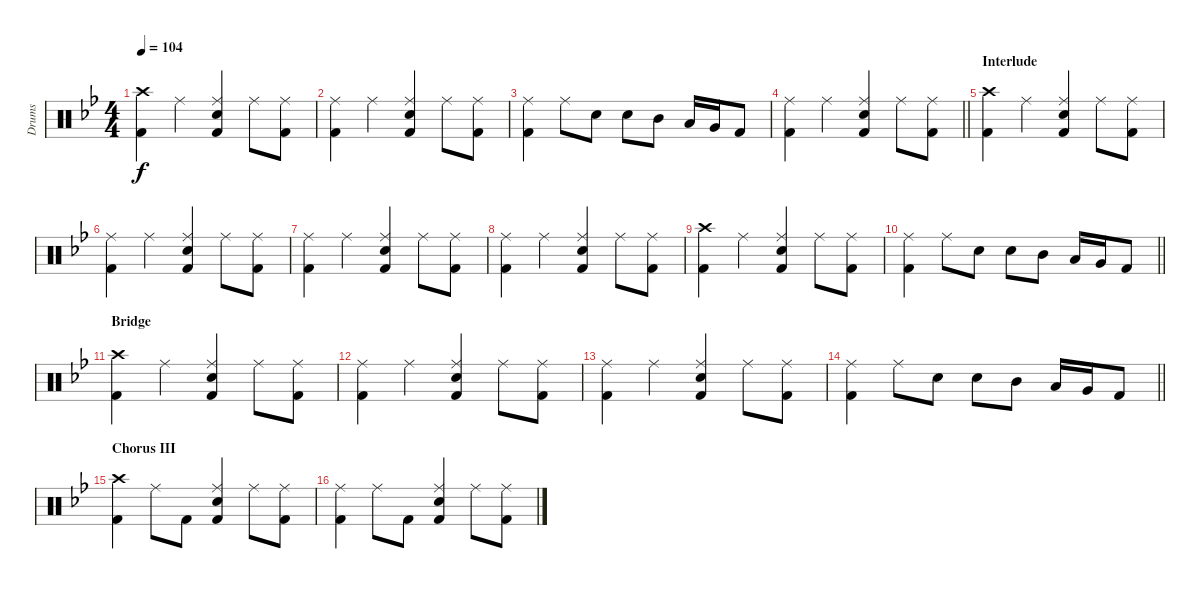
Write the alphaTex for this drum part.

\track ("Drums" "Drums") {instrument percussion}
\staff {score}
\articulation defaults
\ts (4 4)
\tempo 104
\clef neutral
\ks bb
("Crash high (hit)" "Kick (hit) 2").4{dy f} "Ride (middle)".4 ("Ride (middle)" "Snare (hit) 2" "Kick (hit) 2").4 "Ride (middle)".8 ("Ride (middle)" "Kick (hit) 2").8 |
("Ride (middle)" "Kick (hit) 2").4 "Ride (middle)".4 ("Ride (middle)" "Snare (hit) 2" "Kick (hit) 2").4 "Ride (middle)".8 ("Ride (middle)" "Kick (hit) 2").8 |
("Ride (middle)" "Kick (hit) 2").4 "Ride (middle)".8 "Snare (hit) 2".8 "Snare (hit) 2".8 "Mid Tom (hit)".8 "Low Tom (hit)".16 "Very Low Tom (hit)".16 "Kick (hit) 2".8 |
\barLineRight lightlight
("Ride (middle)" "Kick (hit) 2").4 "Ride (middle)".4 ("Ride (middle)" "Snare (hit) 2" "Kick (hit) 2").4 "Ride (middle)".8 ("Ride (middle)" "Kick (hit) 2").8 |
\section ("" "Interlude")
("Crash high (hit)" "Kick (hit) 2").4 "Ride (middle)".4 ("Ride (middle)" "Snare (hit) 2" "Kick (hit) 2").4 "Ride (middle)".8 ("Ride (middle)" "Kick (hit) 2").8 |
("Ride (middle)" "Kick (hit) 2").4 "Ride (middle)".4 ("Ride (middle)" "Snare (hit) 2" "Kick (hit) 2").4 "Ride (middle)".8 ("Ride (middle)" "Kick (hit) 2").8 |
("Ride (middle)" "Kick (hit) 2").4 "Ride (middle)".4 ("Ride (middle)" "Snare (hit) 2" "Kick (hit) 2").4 "Ride (middle)".8 ("Ride (middle)" "Kick (hit) 2").8 |
("Ride (middle)" "Kick (hit) 2").4 "Ride (middle)".4 ("Ride (middle)" "Snare (hit) 2" "Kick (hit) 2").4 "Ride (middle)".8 ("Ride (middle)" "Kick (hit) 2").8 |
("Crash high (hit)" "Kick (hit) 2").4 "Ride (middle)".4 ("Ride (middle)" "Snare (hit) 2" "Kick (hit) 2").4 "Ride (middle)".8 ("Ride (middle)" "Kick (hit) 2").8 |
\barLineRight lightlight
("Ride (middle)" "Kick (hit) 2").4 "Ride (middle)".8 "Snare (hit) 2".8 "Snare (hit) 2".8 "Mid Tom (hit)".8 "Low Tom (hit)".16 "Very Low Tom (hit)".16 "Kick (hit) 2".8 |
\section ("" "Bridge")
("Crash high (hit)" "Kick (hit) 2").4 "Ride (middle)".4 ("Ride (middle)" "Snare (hit) 2" "Kick (hit) 2").4 "Ride (middle)".8 ("Ride (middle)" "Kick (hit) 2").8 |
("Ride (middle)" "Kick (hit) 2").4 "Ride (middle)".4 ("Ride (middle)" "Snare (hit) 2" "Kick (hit) 2").4 "Ride (middle)".8 ("Ride (middle)" "Kick (hit) 2").8 |
("Ride (middle)" "Kick (hit) 2").4 "Ride (middle)".4 ("Ride (middle)" "Snare (hit) 2" "Kick (hit) 2").4 "Ride (middle)".8 ("Ride (middle)" "Kick (hit) 2").8 |
\barLineRight lightlight
("Ride (middle)" "Kick (hit) 2").4 "Ride (middle)".8 "Snare (hit) 2".8 "Snare (hit) 2".8 "Mid Tom (hit)".8 "Low Tom (hit)".16 "Very Low Tom (hit)".16 "Kick (hit) 2".8 |
\section ("" "Chorus III")
("Crash high (hit)" "Kick (hit) 2").4 "Ride (middle)".8 "Kick (hit) 2".8 ("Ride (middle)" "Snare (hit) 2" "Kick (hit) 2").4 "Ride (middle)".8 ("Ride (middle)" "Kick (hit) 2").8 |
("Ride (middle)" "Kick (hit) 2").4 "Ride (middle)".8 "Kick (hit) 2".8 ("Ride (middle)" "Snare (hit) 2" "Kick (hit) 2").4 "Ride (middle)".8 ("Ride (middle)" "Kick (hit) 2").8
